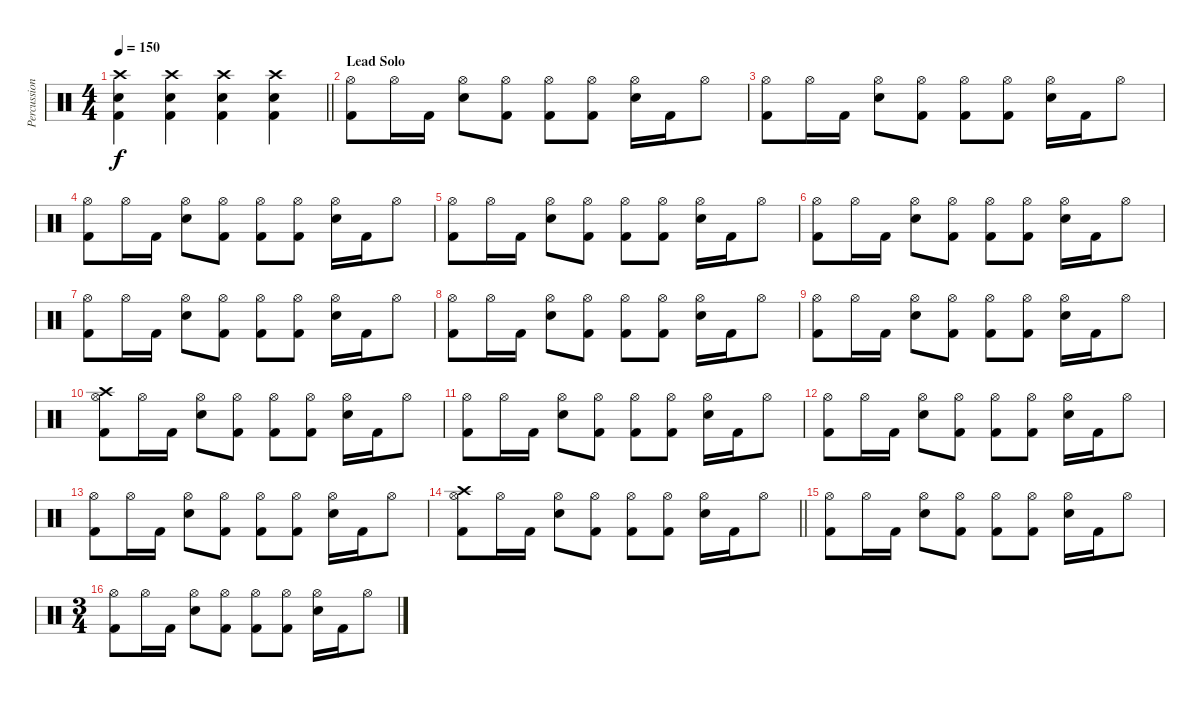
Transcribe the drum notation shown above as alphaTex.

\track ("Percussion" "Percussion") {instrument percussion}
\staff {score}
\articulation defaults
\ts (4 4)
\tempo 150
\clef neutral
\barLineRight lightlight
\ks c
("Crash high (hit)" "Snare (hit) 2" "Kick (hit) 2").4{dy f} ("Crash high (hit)" "Snare (hit) 2" "Kick (hit) 2").4 ("Crash high (hit)" "Snare (hit) 2" "Kick (hit) 2").4 ("Crash high (hit)" "Snare (hit) 2" "Kick (hit) 2").4 |
\section ("" "Lead Solo")
("Hi-Hat (open)" "Kick (hit) 2").8 "Hi-Hat (open)".16 "Kick (hit) 2".16 ("Hi-Hat (open)" "Snare (hit) 2").8 ("Hi-Hat (open)" "Kick (hit) 2").8 ("Hi-Hat (open)" "Kick (hit) 2").8 ("Hi-Hat (open)" "Kick (hit) 2").8 ("Hi-Hat (open)" "Snare (hit) 2").16 "Kick (hit) 2".16 "Hi-Hat (open)".8 |
("Hi-Hat (open)" "Kick (hit) 2").8 "Hi-Hat (open)".16 "Kick (hit) 2".16 ("Hi-Hat (open)" "Snare (hit) 2").8 ("Hi-Hat (open)" "Kick (hit) 2").8 ("Hi-Hat (open)" "Kick (hit) 2").8 ("Hi-Hat (open)" "Kick (hit) 2").8 ("Hi-Hat (open)" "Snare (hit) 2").16 "Kick (hit) 2".16 "Hi-Hat (open)".8 |
("Hi-Hat (open)" "Kick (hit) 2").8 "Hi-Hat (open)".16 "Kick (hit) 2".16 ("Hi-Hat (open)" "Snare (hit) 2").8 ("Hi-Hat (open)" "Kick (hit) 2").8 ("Hi-Hat (open)" "Kick (hit) 2").8 ("Hi-Hat (open)" "Kick (hit) 2").8 ("Hi-Hat (open)" "Snare (hit) 2").16 "Kick (hit) 2".16 "Hi-Hat (open)".8 |
("Hi-Hat (open)" "Kick (hit) 2").8 "Hi-Hat (open)".16 "Kick (hit) 2".16 ("Hi-Hat (open)" "Snare (hit) 2").8 ("Hi-Hat (open)" "Kick (hit) 2").8 ("Hi-Hat (open)" "Kick (hit) 2").8 ("Hi-Hat (open)" "Kick (hit) 2").8 ("Hi-Hat (open)" "Snare (hit) 2").16 "Kick (hit) 2".16 "Hi-Hat (open)".8 |
("Hi-Hat (open)" "Kick (hit) 2").8 "Hi-Hat (open)".16 "Kick (hit) 2".16 ("Hi-Hat (open)" "Snare (hit) 2").8 ("Hi-Hat (open)" "Kick (hit) 2").8 ("Hi-Hat (open)" "Kick (hit) 2").8 ("Hi-Hat (open)" "Kick (hit) 2").8 ("Hi-Hat (open)" "Snare (hit) 2").16 "Kick (hit) 2".16 "Hi-Hat (open)".8 |
("Hi-Hat (open)" "Kick (hit) 2").8 "Hi-Hat (open)".16 "Kick (hit) 2".16 ("Hi-Hat (open)" "Snare (hit) 2").8 ("Hi-Hat (open)" "Kick (hit) 2").8 ("Hi-Hat (open)" "Kick (hit) 2").8 ("Hi-Hat (open)" "Kick (hit) 2").8 ("Hi-Hat (open)" "Snare (hit) 2").16 "Kick (hit) 2".16 "Hi-Hat (open)".8 |
("Hi-Hat (open)" "Kick (hit) 2").8 "Hi-Hat (open)".16 "Kick (hit) 2".16 ("Hi-Hat (open)" "Snare (hit) 2").8 ("Hi-Hat (open)" "Kick (hit) 2").8 ("Hi-Hat (open)" "Kick (hit) 2").8 ("Hi-Hat (open)" "Kick (hit) 2").8 ("Hi-Hat (open)" "Snare (hit) 2").16 "Kick (hit) 2".16 "Hi-Hat (open)".8 |
("Hi-Hat (open)" "Kick (hit) 2").8 "Hi-Hat (open)".16 "Kick (hit) 2".16 ("Hi-Hat (open)" "Snare (hit) 2").8 ("Hi-Hat (open)" "Kick (hit) 2").8 ("Hi-Hat (open)" "Kick (hit) 2").8 ("Hi-Hat (open)" "Kick (hit) 2").8 ("Hi-Hat (open)" "Snare (hit) 2").16 "Kick (hit) 2".16 "Hi-Hat (open)".8 |
("Crash high (hit)" "Hi-Hat (open)" "Kick (hit) 2").8 "Hi-Hat (open)".16 "Kick (hit) 2".16 ("Hi-Hat (open)" "Snare (hit) 2").8 ("Hi-Hat (open)" "Kick (hit) 2").8 ("Hi-Hat (open)" "Kick (hit) 2").8 ("Hi-Hat (open)" "Kick (hit) 2").8 ("Hi-Hat (open)" "Snare (hit) 2").16 "Kick (hit) 2".16 "Hi-Hat (open)".8 |
("Hi-Hat (open)" "Kick (hit) 2").8 "Hi-Hat (open)".16 "Kick (hit) 2".16 ("Hi-Hat (open)" "Snare (hit) 2").8 ("Hi-Hat (open)" "Kick (hit) 2").8 ("Hi-Hat (open)" "Kick (hit) 2").8 ("Hi-Hat (open)" "Kick (hit) 2").8 ("Hi-Hat (open)" "Snare (hit) 2").16 "Kick (hit) 2".16 "Hi-Hat (open)".8 |
("Hi-Hat (open)" "Kick (hit) 2").8 "Hi-Hat (open)".16 "Kick (hit) 2".16 ("Hi-Hat (open)" "Snare (hit) 2").8 ("Hi-Hat (open)" "Kick (hit) 2").8 ("Hi-Hat (open)" "Kick (hit) 2").8 ("Hi-Hat (open)" "Kick (hit) 2").8 ("Hi-Hat (open)" "Snare (hit) 2").16 "Kick (hit) 2".16 "Hi-Hat (open)".8 |
("Hi-Hat (open)" "Kick (hit) 2").8 "Hi-Hat (open)".16 "Kick (hit) 2".16 ("Hi-Hat (open)" "Snare (hit) 2").8 ("Hi-Hat (open)" "Kick (hit) 2").8 ("Hi-Hat (open)" "Kick (hit) 2").8 ("Hi-Hat (open)" "Kick (hit) 2").8 ("Hi-Hat (open)" "Snare (hit) 2").16 "Kick (hit) 2".16 "Hi-Hat (open)".8 |
\barLineRight lightlight
("Crash high (hit)" "Hi-Hat (open)" "Kick (hit) 2").8 "Hi-Hat (open)".16 "Kick (hit) 2".16 ("Hi-Hat (open)" "Snare (hit) 2").8 ("Hi-Hat (open)" "Kick (hit) 2").8 ("Hi-Hat (open)" "Kick (hit) 2").8 ("Hi-Hat (open)" "Kick (hit) 2").8 ("Hi-Hat (open)" "Snare (hit) 2").16 "Kick (hit) 2".16 "Hi-Hat (open)".8 |
("Hi-Hat (open)" "Kick (hit) 2").8 "Hi-Hat (open)".16 "Kick (hit) 2".16 ("Hi-Hat (open)" "Snare (hit) 2").8 ("Hi-Hat (open)" "Kick (hit) 2").8 ("Hi-Hat (open)" "Kick (hit) 2").8 ("Hi-Hat (open)" "Kick (hit) 2").8 ("Hi-Hat (open)" "Snare (hit) 2").16 "Kick (hit) 2".16 "Hi-Hat (open)".8 |
\ts (3 4)
("Hi-Hat (open)" "Kick (hit) 2").8 "Hi-Hat (open)".16 "Kick (hit) 2".16 ("Hi-Hat (open)" "Snare (hit) 2").8 ("Hi-Hat (open)" "Kick (hit) 2").8 ("Hi-Hat (open)" "Kick (hit) 2").8 ("Hi-Hat (open)" "Kick (hit) 2").8 ("Hi-Hat (open)" "Snare (hit) 2").16 "Kick (hit) 2".16 "Hi-Hat (open)".8
